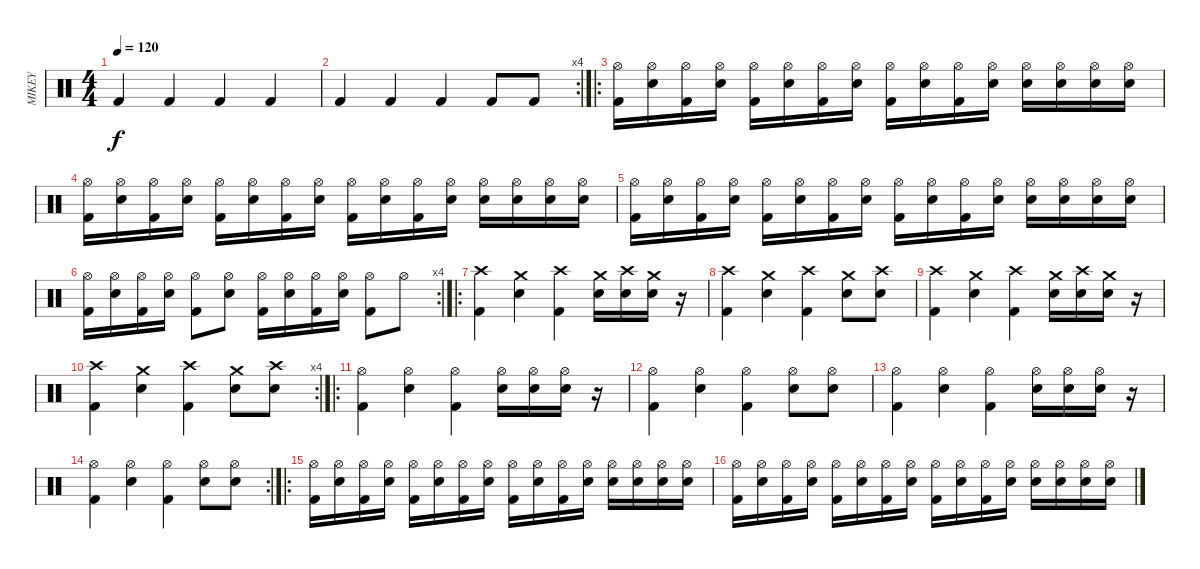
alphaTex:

\track ("MIKEY" "MIKEY") {instrument percussion}
\staff {score}
\articulation defaults
\ts (4 4)
\tempo 120
\clef neutral
\ks c "Kick (hit) 2".4{dy f} "Kick (hit) 2".4 "Kick (hit) 2".4 "Kick (hit) 2".4
|
\rc 4 "Kick (hit) 2".4 "Kick (hit) 2".4 "Kick (hit) 2".4 "Kick (hit) 2".8 "Kick (hit) 2".8
|
\ro
("Hi-Hat (open)" "Kick (hit) 2").16 ("Hi-Hat (open)" "Electric Snare (hit)").16 ("Hi-Hat (open)" "Kick (hit) 2").16 ("Hi-Hat (open)" "Electric Snare (hit)").16 ("Hi-Hat (open)" "Kick (hit) 2").16 ("Hi-Hat (open)" "Electric Snare (hit)").16 ("Hi-Hat (open)" "Kick (hit) 2").16 ("Hi-Hat (open)" "Electric Snare (hit)").16 ("Hi-Hat (open)" "Kick (hit) 2").16 ("Hi-Hat (open)" "Electric Snare (hit)").16 ("Hi-Hat (open)" "Kick (hit) 2").16 ("Hi-Hat (open)" "Electric Snare (hit)").16 ("Hi-Hat (open)" "Electric Snare (hit)").16 ("Hi-Hat (open)" "Electric Snare (hit)").16 ("Hi-Hat (open)" "Electric Snare (hit)").16 ("Hi-Hat (open)" "Electric Snare (hit)").16 |
("Hi-Hat (open)" "Kick (hit) 2").16 ("Hi-Hat (open)" "Electric Snare (hit)").16 ("Hi-Hat (open)" "Kick (hit) 2").16 ("Hi-Hat (open)" "Electric Snare (hit)").16 ("Hi-Hat (open)" "Kick (hit) 2").16 ("Hi-Hat (open)" "Electric Snare (hit)").16 ("Hi-Hat (open)" "Kick (hit) 2").16 ("Hi-Hat (open)" "Electric Snare (hit)").16 ("Hi-Hat (open)" "Kick (hit) 2").16 ("Hi-Hat (open)" "Electric Snare (hit)").16 ("Hi-Hat (open)" "Kick (hit) 2").16 ("Hi-Hat (open)" "Electric Snare (hit)").16 ("Hi-Hat (open)" "Electric Snare (hit)").16 ("Hi-Hat (open)" "Electric Snare (hit)").16 ("Hi-Hat (open)" "Electric Snare (hit)").16 ("Hi-Hat (open)" "Electric Snare (hit)").16 |
("Hi-Hat (open)" "Kick (hit) 2").16 ("Hi-Hat (open)" "Electric Snare (hit)").16 ("Hi-Hat (open)" "Kick (hit) 2").16 ("Hi-Hat (open)" "Electric Snare (hit)").16 ("Hi-Hat (open)" "Kick (hit) 2").16 ("Hi-Hat (open)" "Electric Snare (hit)").16 ("Hi-Hat (open)" "Kick (hit) 2").16 ("Hi-Hat (open)" "Electric Snare (hit)").16 ("Hi-Hat (open)" "Kick (hit) 2").16 ("Hi-Hat (open)" "Electric Snare (hit)").16 ("Hi-Hat (open)" "Kick (hit) 2").16 ("Hi-Hat (open)" "Electric Snare (hit)").16 ("Hi-Hat (open)" "Electric Snare (hit)").16 ("Hi-Hat (open)" "Electric Snare (hit)").16 ("Hi-Hat (open)" "Electric Snare (hit)").16 ("Hi-Hat (open)" "Electric Snare (hit)").16 |
\rc 4
("Hi-Hat (open)" "Kick (hit) 2").16 ("Hi-Hat (open)" "Electric Snare (hit)").16 ("Hi-Hat (open)" "Kick (hit) 2").16 ("Hi-Hat (open)" "Electric Snare (hit)").16 ("Hi-Hat (open)" "Kick (hit) 2").8 ("Hi-Hat (open)" "Electric Snare (hit)").8 ("Hi-Hat (open)" "Kick (hit) 2").16 ("Hi-Hat (open)" "Electric Snare (hit)").16 ("Hi-Hat (open)" "Kick (hit) 2").16 ("Hi-Hat (open)" "Electric Snare (hit)").16 ("Hi-Hat (open)" "Kick (hit) 2").8 "Hi-Hat (open)".8 |
\ro
("Crash high (hit)" "Kick (hit) 2").4 ("Crash medium (hit)" "Electric Snare (hit)").4 ("Crash high (hit)" "Kick (hit) 2").4 ("Crash medium (hit)" "Electric Snare (hit)").16 ("Crash high (hit)" "Electric Snare (hit)").16 ("Crash medium (hit)" "Electric Snare (hit)").16 r.16 |
("Crash high (hit)" "Kick (hit) 2").4 ("Crash medium (hit)" "Electric Snare (hit)").4 ("Crash high (hit)" "Kick (hit) 2").4 ("Crash medium (hit)" "Electric Snare (hit)").8 ("Crash high (hit)" "Electric Snare (hit)").8 |
("Crash high (hit)" "Kick (hit) 2").4 ("Crash medium (hit)" "Electric Snare (hit)").4 ("Crash high (hit)" "Kick (hit) 2").4 ("Crash medium (hit)" "Electric Snare (hit)").16 ("Crash high (hit)" "Electric Snare (hit)").16 ("Crash medium (hit)" "Electric Snare (hit)").16 r.16 |
\rc 4
("Crash high (hit)" "Kick (hit) 2").4 ("Crash medium (hit)" "Electric Snare (hit)").4 ("Crash high (hit)" "Kick (hit) 2").4 ("Crash medium (hit)" "Electric Snare (hit)").8 ("Crash high (hit)" "Electric Snare (hit)").8 |
\ro
("Hi-Hat (open)" "Kick (hit) 2").4 ("Hi-Hat (open)" "Electric Snare (hit)").4 ("Hi-Hat (open)" "Kick (hit) 2").4 ("Hi-Hat (open)" "Electric Snare (hit)").16 ("Hi-Hat (open)" "Electric Snare (hit)").16 ("Hi-Hat (open)" "Electric Snare (hit)").16 r.16 |
("Hi-Hat (open)" "Kick (hit) 2").4 ("Hi-Hat (open)" "Electric Snare (hit)").4 ("Hi-Hat (open)" "Kick (hit) 2").4 ("Hi-Hat (open)" "Electric Snare (hit)").8 ("Hi-Hat (open)" "Electric Snare (hit)").8 |
("Hi-Hat (open)" "Kick (hit) 2").4 ("Hi-Hat (open)" "Electric Snare (hit)").4 ("Hi-Hat (open)" "Kick (hit) 2").4 ("Hi-Hat (open)" "Electric Snare (hit)").16 ("Hi-Hat (open)" "Electric Snare (hit)").16 ("Hi-Hat (open)" "Electric Snare (hit)").16 r.16 |
\rc 2
("Hi-Hat (open)" "Kick (hit) 2").4 ("Hi-Hat (open)" "Electric Snare (hit)").4 ("Hi-Hat (open)" "Kick (hit) 2").4 ("Hi-Hat (open)" "Electric Snare (hit)").8 ("Hi-Hat (open)" "Electric Snare (hit)").8 |
\ro
("Hi-Hat (open)" "Kick (hit) 2").16 ("Hi-Hat (open)" "Electric Snare (hit)").16 ("Hi-Hat (open)" "Kick (hit) 2").16 ("Hi-Hat (open)" "Electric Snare (hit)").16 ("Hi-Hat (open)" "Kick (hit) 2").16 ("Hi-Hat (open)" "Electric Snare (hit)").16 ("Hi-Hat (open)" "Kick (hit) 2").16 ("Hi-Hat (open)" "Electric Snare (hit)").16 ("Hi-Hat (open)" "Kick (hit) 2").16 ("Hi-Hat (open)" "Electric Snare (hit)").16 ("Hi-Hat (open)" "Kick (hit) 2").16 ("Hi-Hat (open)" "Electric Snare (hit)").16 ("Hi-Hat (open)" "Electric Snare (hit)").16 ("Hi-Hat (open)" "Electric Snare (hit)").16 ("Hi-Hat (open)" "Electric Snare (hit)").16 ("Hi-Hat (open)" "Electric Snare (hit)").16 |
("Hi-Hat (open)" "Kick (hit) 2").16 ("Hi-Hat (open)" "Electric Snare (hit)").16 ("Hi-Hat (open)" "Kick (hit) 2").16 ("Hi-Hat (open)" "Electric Snare (hit)").16 ("Hi-Hat (open)" "Kick (hit) 2").16 ("Hi-Hat (open)" "Electric Snare (hit)").16 ("Hi-Hat (open)" "Kick (hit) 2").16 ("Hi-Hat (open)" "Electric Snare (hit)").16 ("Hi-Hat (open)" "Kick (hit) 2").16 ("Hi-Hat (open)" "Electric Snare (hit)").16 ("Hi-Hat (open)" "Kick (hit) 2").16 ("Hi-Hat (open)" "Electric Snare (hit)").16 ("Hi-Hat (open)" "Electric Snare (hit)").16 ("Hi-Hat (open)" "Electric Snare (hit)").16 ("Hi-Hat (open)" "Electric Snare (hit)").16 ("Hi-Hat (open)" "Electric Snare (hit)").16
